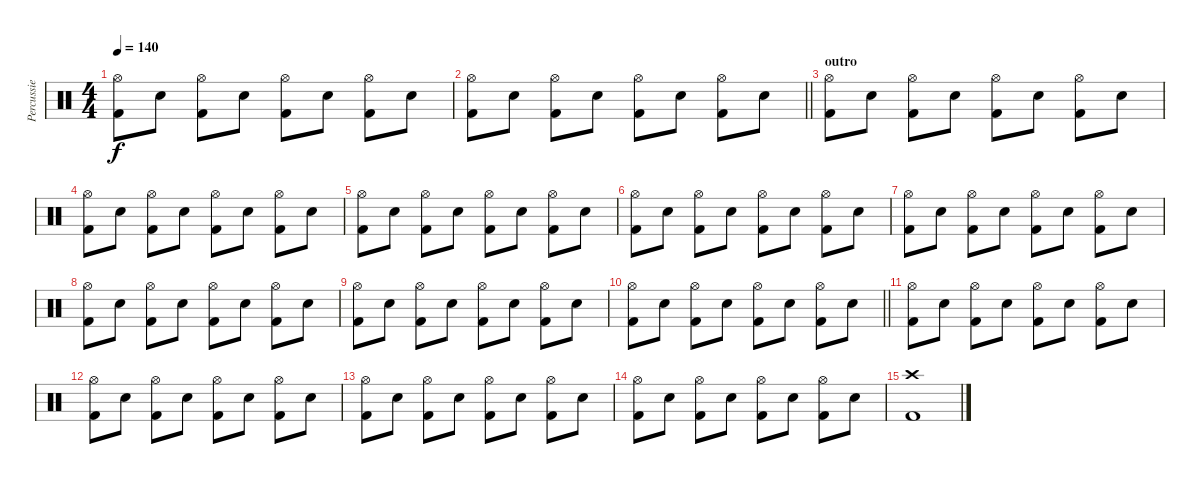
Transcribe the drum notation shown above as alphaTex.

\track ("Percussie" "Percussie") {instrument percussion}
\staff {score}
\articulation defaults
\ts (4 4)
\tempo 140
\clef neutral
\ks c
("Hi-Hat (open)" "Kick (hit) 2").8{dy f} "Snare (hit) 2".8 ("Hi-Hat (open)" "Kick (hit) 2").8 "Snare (hit) 2".8 ("Hi-Hat (open)" "Kick (hit) 2").8 "Snare (hit) 2".8 ("Hi-Hat (open)" "Kick (hit) 2").8 "Snare (hit) 2".8 |
\barLineRight lightlight
("Hi-Hat (open)" "Kick (hit) 2").8 "Snare (hit) 2".8 ("Hi-Hat (open)" "Kick (hit) 2").8 "Snare (hit) 2".8 ("Hi-Hat (open)" "Kick (hit) 2").8 "Snare (hit) 2".8 ("Hi-Hat (open)" "Kick (hit) 2").8 "Snare (hit) 2".8 |
\section ("" "outro")
("Hi-Hat (open)" "Kick (hit) 2").8 "Snare (hit) 2".8 ("Hi-Hat (open)" "Kick (hit) 2").8 "Snare (hit) 2".8 ("Hi-Hat (open)" "Kick (hit) 2").8 "Snare (hit) 2".8 ("Hi-Hat (open)" "Kick (hit) 2").8 "Snare (hit) 2".8 |
("Hi-Hat (open)" "Kick (hit) 2").8 "Snare (hit) 2".8 ("Hi-Hat (open)" "Kick (hit) 2").8 "Snare (hit) 2".8 ("Hi-Hat (open)" "Kick (hit) 2").8 "Snare (hit) 2".8 ("Hi-Hat (open)" "Kick (hit) 2").8 "Snare (hit) 2".8 |
("Hi-Hat (open)" "Kick (hit) 2").8 "Snare (hit) 2".8 ("Hi-Hat (open)" "Kick (hit) 2").8 "Snare (hit) 2".8 ("Hi-Hat (open)" "Kick (hit) 2").8 "Snare (hit) 2".8 ("Hi-Hat (open)" "Kick (hit) 2").8 "Snare (hit) 2".8 |
("Hi-Hat (open)" "Kick (hit) 2").8 "Snare (hit) 2".8 ("Hi-Hat (open)" "Kick (hit) 2").8 "Snare (hit) 2".8 ("Hi-Hat (open)" "Kick (hit) 2").8 "Snare (hit) 2".8 ("Hi-Hat (open)" "Kick (hit) 2").8 "Snare (hit) 2".8 |
("Hi-Hat (open)" "Kick (hit) 2").8 "Snare (hit) 2".8 ("Hi-Hat (open)" "Kick (hit) 2").8 "Snare (hit) 2".8 ("Hi-Hat (open)" "Kick (hit) 2").8 "Snare (hit) 2".8 ("Hi-Hat (open)" "Kick (hit) 2").8 "Snare (hit) 2".8 |
("Hi-Hat (open)" "Kick (hit) 2").8 "Snare (hit) 2".8 ("Hi-Hat (open)" "Kick (hit) 2").8 "Snare (hit) 2".8 ("Hi-Hat (open)" "Kick (hit) 2").8 "Snare (hit) 2".8 ("Hi-Hat (open)" "Kick (hit) 2").8 "Snare (hit) 2".8 |
("Hi-Hat (open)" "Kick (hit) 2").8 "Snare (hit) 2".8 ("Hi-Hat (open)" "Kick (hit) 2").8 "Snare (hit) 2".8 ("Hi-Hat (open)" "Kick (hit) 2").8 "Snare (hit) 2".8 ("Hi-Hat (open)" "Kick (hit) 2").8 "Snare (hit) 2".8 |
\barLineRight lightlight
("Hi-Hat (open)" "Kick (hit) 2").8 "Snare (hit) 2".8 ("Hi-Hat (open)" "Kick (hit) 2").8 "Snare (hit) 2".8 ("Hi-Hat (open)" "Kick (hit) 2").8 "Snare (hit) 2".8 ("Hi-Hat (open)" "Kick (hit) 2").8 "Snare (hit) 2".8 |
("Hi-Hat (open)" "Kick (hit) 2").8 "Snare (hit) 2".8 ("Hi-Hat (open)" "Kick (hit) 2").8 "Snare (hit) 2".8 ("Hi-Hat (open)" "Kick (hit) 2").8 "Snare (hit) 2".8 ("Hi-Hat (open)" "Kick (hit) 2").8 "Snare (hit) 2".8 |
("Hi-Hat (open)" "Kick (hit) 2").8 "Snare (hit) 2".8 ("Hi-Hat (open)" "Kick (hit) 2").8 "Snare (hit) 2".8 ("Hi-Hat (open)" "Kick (hit) 2").8 "Snare (hit) 2".8 ("Hi-Hat (open)" "Kick (hit) 2").8 "Snare (hit) 2".8 |
("Hi-Hat (open)" "Kick (hit) 2").8 "Snare (hit) 2".8 ("Hi-Hat (open)" "Kick (hit) 2").8 "Snare (hit) 2".8 ("Hi-Hat (open)" "Kick (hit) 2").8 "Snare (hit) 2".8 ("Hi-Hat (open)" "Kick (hit) 2").8 "Snare (hit) 2".8 |
("Hi-Hat (open)" "Kick (hit) 2").8 "Snare (hit) 2".8 ("Hi-Hat (open)" "Kick (hit) 2").8 "Snare (hit) 2".8 ("Hi-Hat (open)" "Kick (hit) 2").8 "Snare (hit) 2".8 ("Hi-Hat (open)" "Kick (hit) 2").8 "Snare (hit) 2".8 |
("Crash high (hit)" "Kick (hit) 2").1
